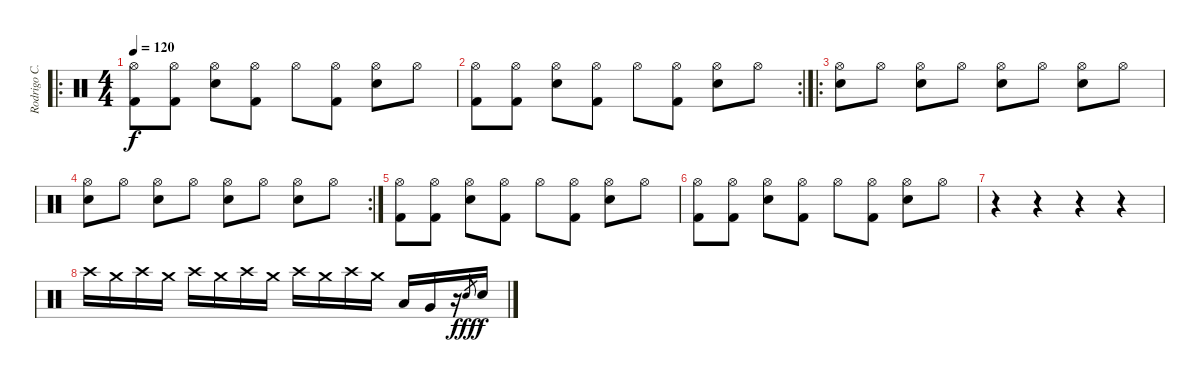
\track ("Rodrigo C. (Bateria)" "Rodrigo C.") {instrument percussion}
\staff {score}
\articulation defaults
\ro
\ts (4 4)
\tempo 120
\clef neutral
\ks c
("Hi-Hat (open)" "Kick (hit) 2").8{dy f} ("Hi-Hat (open)" "Kick (hit) 2").8 ("Hi-Hat (open)" "Electric Snare (hit)").8 ("Hi-Hat (open)" "Kick (hit) 2").8 "Hi-Hat (open)".8 ("Hi-Hat (open)" "Kick (hit) 2").8 ("Hi-Hat (open)" "Electric Snare (hit)").8 "Hi-Hat (open)".8 |
\rc 2
("Hi-Hat (open)" "Kick (hit) 2").8 ("Hi-Hat (open)" "Kick (hit) 2").8 ("Hi-Hat (open)" "Electric Snare (hit)").8 ("Hi-Hat (open)" "Kick (hit) 2").8 "Hi-Hat (open)".8 ("Hi-Hat (open)" "Kick (hit) 2").8 ("Hi-Hat (open)" "Electric Snare (hit)").8 "Hi-Hat (open)".8 |
\ro
("Hi-Hat (open)" "Electric Snare (hit)").8 "Hi-Hat (open)".8 ("Hi-Hat (open)" "Electric Snare (hit)").8 "Hi-Hat (open)".8 ("Hi-Hat (open)" "Electric Snare (hit)").8 "Hi-Hat (open)".8 ("Hi-Hat (open)" "Electric Snare (hit)").8 "Hi-Hat (open)".8 |
\rc 2
("Hi-Hat (open)" "Electric Snare (hit)").8 "Hi-Hat (open)".8 ("Hi-Hat (open)" "Electric Snare (hit)").8 "Hi-Hat (open)".8 ("Hi-Hat (open)" "Electric Snare (hit)").8 "Hi-Hat (open)".8 ("Hi-Hat (open)" "Electric Snare (hit)").8 "Hi-Hat (open)".8 |
("Hi-Hat (open)" "Kick (hit) 2").8 ("Hi-Hat (open)" "Kick (hit) 2").8 ("Hi-Hat (open)" "Electric Snare (hit)").8 ("Hi-Hat (open)" "Kick (hit) 2").8 "Hi-Hat (open)".8 ("Hi-Hat (open)" "Kick (hit) 2").8 ("Hi-Hat (open)" "Electric Snare (hit)").8 "Hi-Hat (open)".8 |
("Hi-Hat (open)" "Kick (hit) 2").8 ("Hi-Hat (open)" "Kick (hit) 2").8 ("Hi-Hat (open)" "Electric Snare (hit)").8 ("Hi-Hat (open)" "Kick (hit) 2").8 "Hi-Hat (open)".8 ("Hi-Hat (open)" "Kick (hit) 2").8 ("Hi-Hat (open)" "Electric Snare (hit)").8 "Hi-Hat (open)".8 |
r.4 r.4 r.4 r.4 |
"Crash high (hit)".16 "Crash medium (hit)".16 "Crash high (hit)".16 "Crash medium (hit)".16 "Crash high (hit)".16 "Crash medium (hit)".16 "Crash high (hit)".16 "Crash medium (hit)".16 "Crash high (hit)".16 "Crash medium (hit)".16 "Crash high (hit)".16 "Crash medium (hit)".16 "Low Tom (hit)".16 "Very Low Tom (hit)".16 r.16 "Electric Snare (hit)"{h}.8{gr dy fff} "Electric Snare (hit)".16{dy f}
